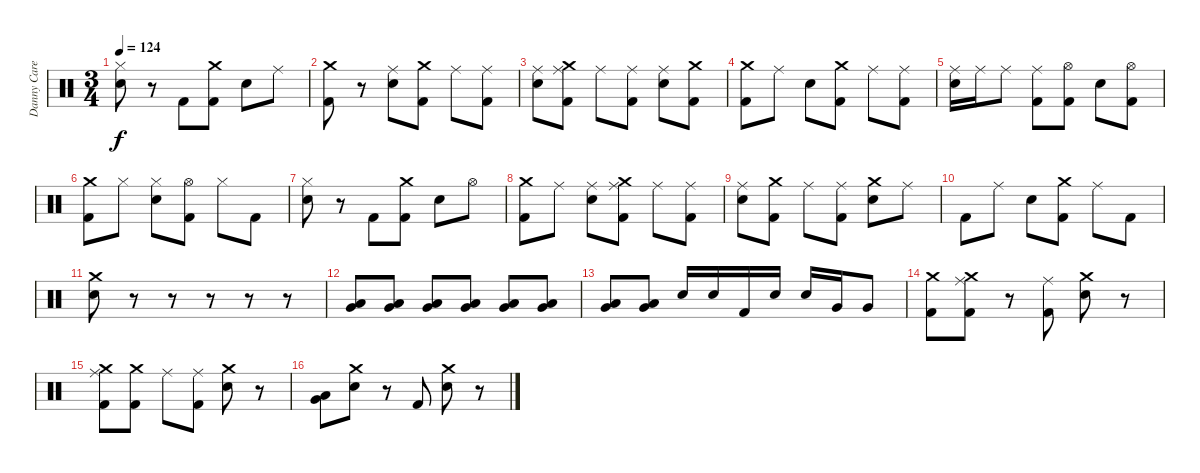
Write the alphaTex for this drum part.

\track ("Danny Carey" "Danny Care") {instrument percussion}
\staff {score}
\articulation defaults
\ts (3 4)
\tempo 124
\clef neutral
\ks c
("Hi-Hat (closed)" "Electric Snare (hit)").8{dy f} r.8 "Kick (hit) 2".8 ("Crash medium (hit)" "Kick (hit) 2").8 "Electric Snare (hit)".8 "Ride (middle)".8 |
("Crash medium (hit)" "Kick (hit) 2").8 r.8 ("Ride (middle)" "Electric Snare (hit)").8 ("Crash medium (hit)" "Kick (hit) 2").8 "Ride (middle)".8 ("Ride (middle)" "Kick (hit) 2").8 |
("Ride (middle)" "Electric Snare (hit)").8 ("Crash medium (hit)" "Ride (middle)" "Kick (hit) 2").8 "Ride (middle)".8 ("Ride (middle)" "Kick (hit) 2").8 ("Ride (middle)" "Electric Snare (hit)").8 ("Crash medium (hit)" "Kick (hit) 2").8 |
("Crash medium (hit)" "Kick (hit) 2").8 "Ride (middle)".8 "Electric Snare (hit)".8 ("Crash medium (hit)" "Kick (hit) 2").8 "Ride (middle)".8 ("Ride (middle)" "Kick (hit) 2").8 |
("Ride (middle)" "Electric Snare (hit)").16 "Ride (middle)".16 "Ride (middle)".8 ("Ride (middle)" "Kick (hit) 2").8 ("Hi-Hat (open)" "Kick (hit) 2").8 "Electric Snare (hit)".8 ("Hi-Hat (open)" "Kick (hit) 2").8 |
("Crash medium (hit)" "Kick (hit) 2").8 "Hi-Hat (closed)".8 ("Hi-Hat (closed)" "Electric Snare (hit)").8 ("Hi-Hat (open)" "Kick (hit) 2").8 "Hi-Hat (closed)".8 "Kick (hit) 2".8 |
("Hi-Hat (closed)" "Electric Snare (hit)").8 r.8 "Kick (hit) 2".8 ("Crash medium (hit)" "Kick (hit) 2").8 "Electric Snare (hit)".8 "Hi-Hat (open)".8 |
("Crash medium (hit)" "Kick (hit) 2").8 "Ride (middle)".8 ("Ride (middle)" "Electric Snare (hit)").8 ("Crash medium (hit)" "Ride (middle)" "Kick (hit) 2").8 "Ride (middle)".8 ("Ride (middle)" "Kick (hit) 2").8 |
("Ride (middle)" "Electric Snare (hit)").8 ("Crash medium (hit)" "Kick (hit) 2").8 "Ride (middle)".8 ("Ride (middle)" "Kick (hit) 2").8 ("Crash medium (hit)" "Electric Snare (hit)").8 "Ride (middle)".8 |
"Kick (hit) 2".8 "Ride (middle)".8 "Electric Snare (hit)".8 ("Crash medium (hit)" "Kick (hit) 2").8 "Ride (middle)".8 "Kick (hit) 2".8 |
("Crash medium (hit)" "Electric Snare (hit)").8 r.8 r.8 r.8 r.8 r.8 |
("Very Low Tom (hit)" "Low Floor Tom (hit)").8 ("Very Low Tom (hit)" "Low Floor Tom (hit)").8 ("Very Low Tom (hit)" "Low Floor Tom (hit)").8 ("Very Low Tom (hit)" "Low Floor Tom (hit)").8 ("Very Low Tom (hit)" "Low Floor Tom (hit)").8 ("Very Low Tom (hit)" "Low Floor Tom (hit)").8 |
("Very Low Tom (hit)" "Low Floor Tom (hit)").8 ("Very Low Tom (hit)" "Low Floor Tom (hit)").8 "Electric Snare (hit)".16 "Electric Snare (hit)".16 "Kick (hit) 2".16 "Electric Snare (hit)".16 "Electric Snare (hit)".16 "Very Low Tom (hit)".16 "Very Low Tom (hit)".8 |
("Crash medium (hit)" "Kick (hit) 2").8 ("Crash medium (hit)" "Ride (middle)" "Kick (hit) 2").8 r.8 ("Ride (middle)" "Kick (hit) 2").8 ("Crash medium (hit)" "Electric Snare (hit)").8 r.8 |
("Crash medium (hit)" "Ride (middle)" "Kick (hit) 2").8 ("Crash medium (hit)" "Kick (hit) 2").8 "Ride (middle)".8 ("Ride (middle)" "Kick (hit) 2").8 ("Crash medium (hit)" "Electric Snare (hit)").8 r.8 |
("Very Low Tom (hit)" "Low Floor Tom (hit)").8 ("Crash medium (hit)" "Electric Snare (hit)").8 r.8 "Kick (hit) 2".8 ("Crash medium (hit)" "Electric Snare (hit)").8 r.8
